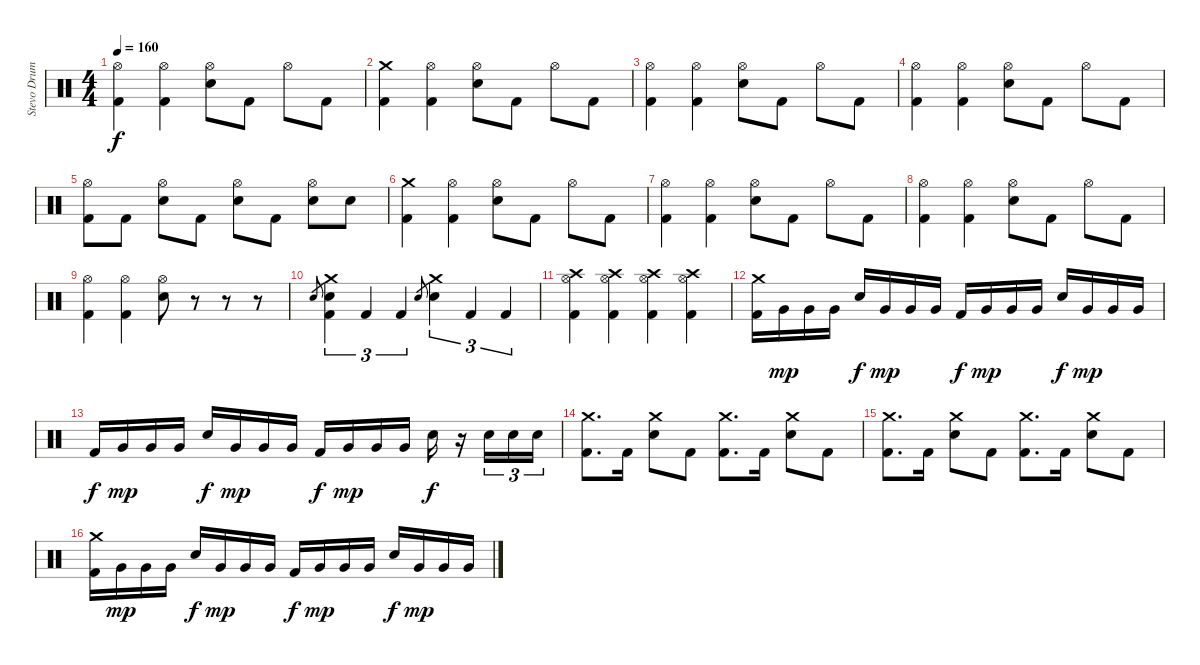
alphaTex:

\track ("Stevo Drums" "Stevo Drum") {instrument percussion}
\staff {score}
\articulation defaults
\ts (4 4)
\tempo 160
\clef neutral
\ks c
("Hi-Hat (open)" "Kick (hit) 2").4{dy f} ("Hi-Hat (open)" "Kick (hit) 2").4 ("Electric Snare (hit)" "Hi-Hat (open)").8 "Kick (hit) 2".8 "Hi-Hat (open)".8 "Kick (hit) 2".8 |
("Crash medium (hit)" "Kick (hit) 2").4 ("Hi-Hat (open)" "Kick (hit) 2").4 ("Electric Snare (hit)" "Hi-Hat (open)").8 "Kick (hit) 2".8 "Hi-Hat (open)".8 "Kick (hit) 2".8 |
("Hi-Hat (open)" "Kick (hit) 2").4 ("Hi-Hat (open)" "Kick (hit) 2").4 ("Electric Snare (hit)" "Hi-Hat (open)").8 "Kick (hit) 2".8 "Hi-Hat (open)".8 "Kick (hit) 2".8 |
("Hi-Hat (open)" "Kick (hit) 2").4 ("Hi-Hat (open)" "Kick (hit) 2").4 ("Electric Snare (hit)" "Hi-Hat (open)").8 "Kick (hit) 2".8 "Hi-Hat (open)".8 "Kick (hit) 2".8 |
("Hi-Hat (open)" "Kick (hit) 2").8 "Kick (hit) 2".8 ("Hi-Hat (open)" "Electric Snare (hit)").8 "Kick (hit) 2".8 ("Hi-Hat (open)" "Electric Snare (hit)").8 "Kick (hit) 2".8 ("Hi-Hat (open)" "Electric Snare (hit)").8 "Electric Snare (hit)".8 |
("Crash medium (hit)" "Kick (hit) 2").4 ("Hi-Hat (open)" "Kick (hit) 2").4 ("Electric Snare (hit)" "Hi-Hat (open)").8 "Kick (hit) 2".8 "Hi-Hat (open)".8 "Kick (hit) 2".8 |
("Hi-Hat (open)" "Kick (hit) 2").4 ("Hi-Hat (open)" "Kick (hit) 2").4 ("Electric Snare (hit)" "Hi-Hat (open)").8 "Kick (hit) 2".8 "Hi-Hat (open)".8 "Kick (hit) 2".8 |
("Hi-Hat (open)" "Kick (hit) 2").4 ("Hi-Hat (open)" "Kick (hit) 2").4 ("Electric Snare (hit)" "Hi-Hat (open)").8 "Kick (hit) 2".8 "Hi-Hat (open)".8 "Kick (hit) 2".8 |
("Hi-Hat (open)" "Kick (hit) 2").4 ("Hi-Hat (open)" "Kick (hit) 2").4 ("Electric Snare (hit)" "Hi-Hat (open)").8 r.8 r.8 r.8 |
"Electric Snare (hit)".8{gr} ("Crash medium (hit)" "Electric Snare (hit)" "Kick (hit) 2").4{tu (3 2)} "Kick (hit) 2".4{tu (3 2)} "Kick (hit) 2".4{tu (3 2)} "Electric Snare (hit)".8{gr} ("Crash medium (hit)" "Electric Snare (hit)").4{tu (3 2)} "Kick (hit) 2".4{tu (3 2)} "Kick (hit) 2".4{tu (3 2)} |
("Crash high (hit)" "Hi-Hat (open)" "Kick (hit) 2").4 ("Crash high (hit)" "Hi-Hat (open)" "Kick (hit) 2").4 ("Crash high (hit)" "Hi-Hat (open)" "Kick (hit) 2").4 ("Crash high (hit)" "Hi-Hat (open)" "Kick (hit) 2").4 |
("Crash medium (hit)" "Kick (hit) 2").16 "Very Low Tom (hit)".16{dy mp} "Very Low Tom (hit)".16 "Very Low Tom (hit)".16 "Electric Snare (hit)".16{dy f} "Very Low Tom (hit)".16{dy mp} "Very Low Tom (hit)".16 "Very Low Tom (hit)".16 "Kick (hit) 2".16{dy f} "Very Low Tom (hit)".16{dy mp} "Very Low Tom (hit)".16 "Very Low Tom (hit)".16 "Electric Snare (hit)".16{dy f} "Very Low Tom (hit)".16{dy mp} "Very Low Tom (hit)".16 "Very Low Tom (hit)".16 |
"Kick (hit) 2".16{dy f} "Very Low Tom (hit)".16{dy mp} "Very Low Tom (hit)".16 "Very Low Tom (hit)".16 "Electric Snare (hit)".16{dy f} "Very Low Tom (hit)".16{dy mp} "Very Low Tom (hit)".16 "Very Low Tom (hit)".16 "Kick (hit) 2".16{dy f} "Very Low Tom (hit)".16{dy mp} "Very Low Tom (hit)".16 "Very Low Tom (hit)".16 "Electric Snare (hit)".16{dy f} r.16 "Electric Snare (hit)".16{tu (3 2)} "Electric Snare (hit)".16{tu (3 2)} "Electric Snare (hit)".16{tu (3 2)} |
("Crash medium (hit)" "Kick (hit) 2").8{d} "Kick (hit) 2".16 ("Crash medium (hit)" "Electric Snare (hit)").8 "Kick (hit) 2".8 ("Crash medium (hit)" "Kick (hit) 2").8{d} "Kick (hit) 2".16 ("Crash medium (hit)" "Electric Snare (hit)").8 "Kick (hit) 2".8 |
("Crash medium (hit)" "Kick (hit) 2").8{d} "Kick (hit) 2".16 ("Crash medium (hit)" "Electric Snare (hit)").8 "Kick (hit) 2".8 ("Crash medium (hit)" "Kick (hit) 2").8{d} "Kick (hit) 2".16 ("Crash medium (hit)" "Electric Snare (hit)").8 "Kick (hit) 2".8 |
("Crash medium (hit)" "Kick (hit) 2").16 "Very Low Tom (hit)".16{dy mp} "Very Low Tom (hit)".16 "Very Low Tom (hit)".16 "Electric Snare (hit)".16{dy f} "Very Low Tom (hit)".16{dy mp} "Very Low Tom (hit)".16 "Very Low Tom (hit)".16 "Kick (hit) 2".16{dy f} "Very Low Tom (hit)".16{dy mp} "Very Low Tom (hit)".16 "Very Low Tom (hit)".16 "Electric Snare (hit)".16{dy f} "Very Low Tom (hit)".16{dy mp} "Very Low Tom (hit)".16 "Very Low Tom (hit)".16
